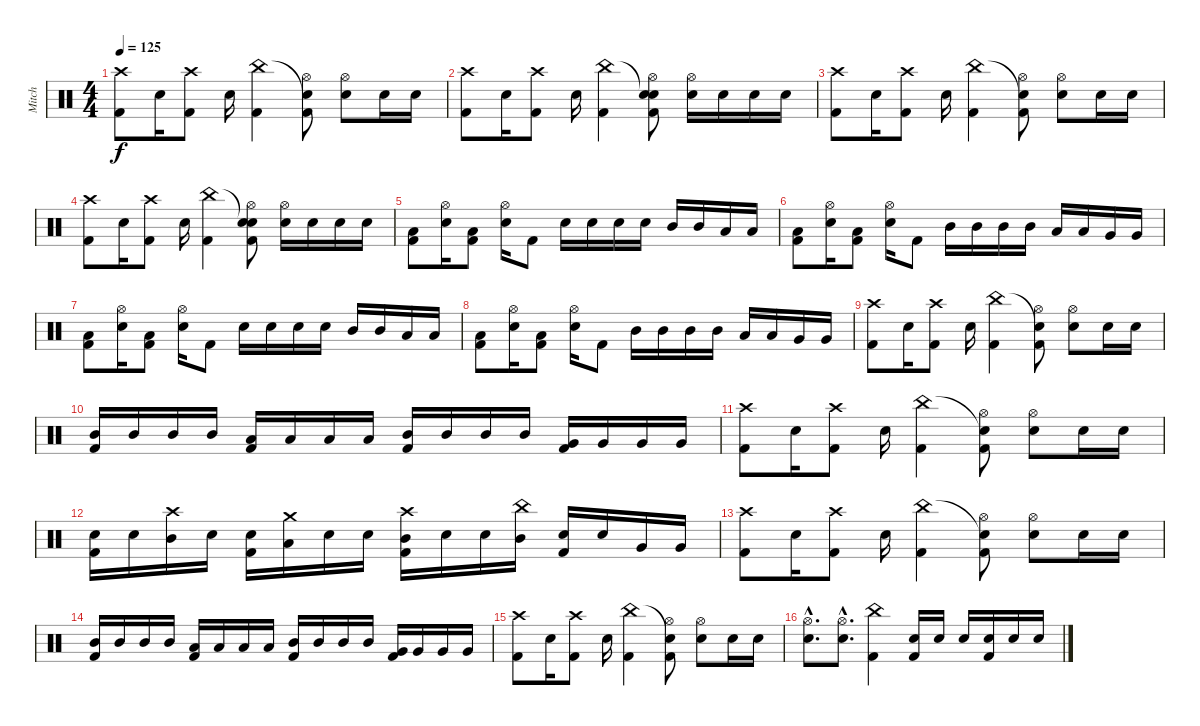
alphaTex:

\track ("Mitch" "Mitch") {instrument percussion}
\staff {score}
\articulation defaults
\ts (4 4)
\tempo 125
\clef neutral
\ks c
("Crash high (hit)" "Kick (hit) 2").8{dy f} "Snare (hit) 2".16 ("Crash high (hit)" "Kick (hit) 2").8 "Snare (hit) 2".16 ("China (hit)" "Kick (hit) 2").4 ("Snare (hit)"{t} "Kick (hit) 2" "Hi-Hat (open)").8 ("Snare (hit) 2" "Hi-Hat (open)").8 "Snare (hit) 2".16 "Snare (hit) 2".16 |
("Crash high (hit)" "Kick (hit) 2").8 "Snare (hit) 2".16 ("Crash high (hit)" "Kick (hit) 2").8 "Snare (hit) 2".16 ("China (hit)" "Kick (hit) 2").4 ("Snare (hit)"{t} "Snare (hit) 2" "Kick (hit) 2" "Hi-Hat (open)").8 ("Snare (hit) 2" "Hi-Hat (open)").16 "Snare (hit) 2".16 "Snare (hit) 2".16 "Snare (hit) 2".16 |
("Crash high (hit)" "Kick (hit) 2").8 "Snare (hit) 2".16 ("Crash high (hit)" "Kick (hit) 2").8 "Snare (hit) 2".16 ("China (hit)" "Kick (hit) 2").4 ("Snare (hit)"{t} "Kick (hit) 2" "Hi-Hat (open)").8 ("Snare (hit) 2" "Hi-Hat (open)").8 "Snare (hit) 2".16 "Snare (hit) 2".16 |
("Crash high (hit)" "Kick (hit) 2").8 "Snare (hit) 2".16 ("Crash high (hit)" "Kick (hit) 2").8 "Snare (hit) 2".16 ("China (hit)" "Kick (hit) 2").4 ("Snare (hit)"{t} "Snare (hit) 2" "Kick (hit) 2" "Hi-Hat (open)").8 ("Snare (hit) 2" "Hi-Hat (open)").16 "Snare (hit) 2".16 "Snare (hit) 2".16 "Snare (hit) 2".16 |
("Low Tom (hit)" "Kick (hit) 2").8 ("Snare (hit) 2" "Hi-Hat (open)").16 ("Low Tom (hit)" "Kick (hit) 2").8 ("Snare (hit) 2" "Hi-Hat (open)").16 "Kick (hit) 2".8 "Snare (hit) 2".16 "Snare (hit) 2".16 "Snare (hit) 2".16 "Snare (hit) 2".16 "Mid Tom (hit)".16 "Mid Tom (hit)".16 "Low Tom (hit)".16 "Low Tom (hit)".16 |
("Low Tom (hit)" "Kick (hit) 2").8 ("Snare (hit) 2" "Hi-Hat (open)").16 ("Low Tom (hit)" "Kick (hit) 2").8 ("Snare (hit) 2" "Hi-Hat (open)").16 "Kick (hit) 2".8 "Mid Tom (hit)".16 "Mid Tom (hit)".16 "Mid Tom (hit)".16 "Mid Tom (hit)".16 "Low Tom (hit)".16 "Low Tom (hit)".16 "Very Low Tom (hit)".16 "Very Low Tom (hit)".16 |
("Low Tom (hit)" "Kick (hit) 2").8 ("Snare (hit) 2" "Hi-Hat (open)").16 ("Low Tom (hit)" "Kick (hit) 2").8 ("Snare (hit) 2" "Hi-Hat (open)").16 "Kick (hit) 2".8 "Snare (hit) 2".16 "Snare (hit) 2".16 "Snare (hit) 2".16 "Snare (hit) 2".16 "Mid Tom (hit)".16 "Mid Tom (hit)".16 "Low Tom (hit)".16 "Low Tom (hit)".16 |
("Low Tom (hit)" "Kick (hit) 2").8 ("Snare (hit) 2" "Hi-Hat (open)").16 ("Low Tom (hit)" "Kick (hit) 2").8 ("Snare (hit) 2" "Hi-Hat (open)").16 "Kick (hit) 2".8 "Mid Tom (hit)".16 "Mid Tom (hit)".16 "Mid Tom (hit)".16 "Mid Tom (hit)".16 "Low Tom (hit)".16 "Low Tom (hit)".16 "Very Low Tom (hit)".16 "Very Low Tom (hit)".16 |
("Crash high (hit)" "Kick (hit) 2").8 "Snare (hit) 2".16 ("Crash high (hit)" "Kick (hit) 2").8 "Snare (hit) 2".16 ("China (hit)" "Kick (hit) 2").4 ("Snare (hit)"{t} "Kick (hit) 2" "Hi-Hat (open)").8 ("Snare (hit) 2" "Hi-Hat (open)").8 "Snare (hit) 2".16 "Snare (hit) 2".16 |
("Mid Tom (hit)" "Kick (hit) 2").16 "Mid Tom (hit)".16 "Mid Tom (hit)".16 "Mid Tom (hit)".16 ("Low Tom (hit)" "Kick (hit) 2").16 "Low Tom (hit)".16 "Low Tom (hit)".16 "Low Tom (hit)".16 ("Mid Tom (hit)" "Kick (hit) 2").16 "Mid Tom (hit)".16 "Mid Tom (hit)".16 "Mid Tom (hit)".16 ("Very Low Tom (hit)" "Kick (hit) 2").16 "Very Low Tom (hit)".16 "Very Low Tom (hit)".16 "Very Low Tom (hit)".16 |
("Crash high (hit)" "Kick (hit) 2").8 "Snare (hit) 2".16 ("Crash high (hit)" "Kick (hit) 2").8 "Snare (hit) 2".16 ("China (hit)" "Kick (hit) 2").4 ("Snare (hit)"{t} "Kick (hit) 2" "Hi-Hat (open)").8 ("Snare (hit) 2" "Hi-Hat (open)").8 "Snare (hit) 2".16 "Snare (hit) 2".16 |
("Snare (hit) 2" "Kick (hit) 2").16 "Snare (hit) 2".16 ("Crash high (hit)" "Mid Tom (hit)").16 "Snare (hit) 2".16 ("Snare (hit) 2" "Kick (hit) 2").16 ("Crash medium (hit)" "Low Tom (hit)").16 "Snare (hit) 2".16 "Snare (hit) 2".16 ("Crash high (hit)" "Mid Tom (hit)" "Kick (hit) 2").16 "Snare (hit) 2".16 "Snare (hit) 2".16 ("China (hit)" "Mid Tom (hit)").16 ("Snare (hit) 2" "Kick (hit) 2").16 "Snare (hit) 2".16 "Very Low Tom (hit)".16 "Very Low Tom (hit)".16 |
("Crash high (hit)" "Kick (hit) 2").8 "Snare (hit) 2".16 ("Crash high (hit)" "Kick (hit) 2").8 "Snare (hit) 2".16 ("China (hit)" "Kick (hit) 2").4 ("Snare (hit)"{t} "Kick (hit) 2" "Hi-Hat (open)").8 ("Snare (hit) 2" "Hi-Hat (open)").8 "Snare (hit) 2".16 "Snare (hit) 2".16 |
("Mid Tom (hit)" "Kick (hit) 2").16 "Mid Tom (hit)".16 "Mid Tom (hit)".16 "Mid Tom (hit)".16 ("Low Tom (hit)" "Kick (hit) 2").16 "Low Tom (hit)".16 "Low Tom (hit)".16 "Low Tom (hit)".16 ("Mid Tom (hit)" "Kick (hit) 2").16 "Mid Tom (hit)".16 "Mid Tom (hit)".16 "Mid Tom (hit)".16 ("Very Low Tom (hit)" "Kick (hit) 2").16 "Very Low Tom (hit)".16 "Very Low Tom (hit)".16 "Very Low Tom (hit)".16 |
("Crash high (hit)" "Kick (hit) 2").8 "Snare (hit) 2".16 ("Crash high (hit)" "Kick (hit) 2").8 "Snare (hit) 2".16 ("China (hit)" "Kick (hit) 2").4 ("Snare (hit)"{t} "Kick (hit) 2" "Hi-Hat (open)").8 ("Snare (hit) 2" "Hi-Hat (open)").8 "Snare (hit) 2".16 "Snare (hit) 2".16 |
("Snare (hit) 2"{hac} "Hi-Hat (open)"{hac}).8{d} ("Snare (hit) 2"{hac} "Hi-Hat (open)"{hac}).8{d} ("China (hit)" "Kick (hit) 2").4 ("Snare (hit) 2" "Kick (hit) 2").16 "Snare (hit) 2".16 "Snare (hit) 2".16 ("Snare (hit) 2" "Kick (hit) 2").16 "Snare (hit) 2".16 "Snare (hit) 2".16
